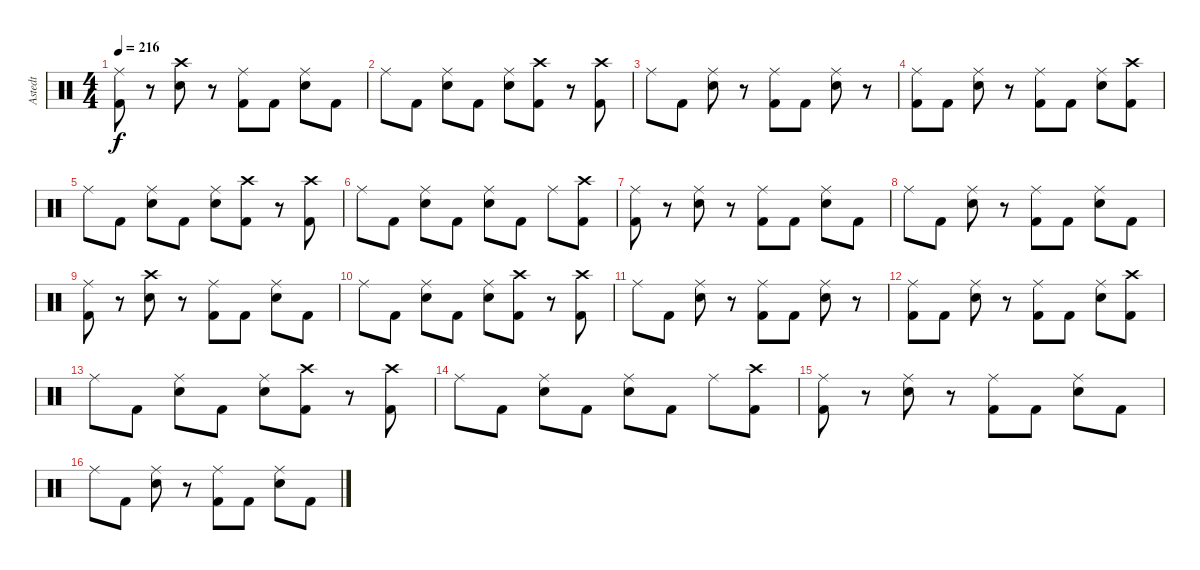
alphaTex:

\track ("Astedt" "Astedt") {instrument percussion}
\staff {score}
\articulation defaults
\ts (4 4)
\tempo 216
\clef neutral
\ks c
("Ride (middle)" "Kick (hit) 2").8{dy f} r.8 ("Crash high (hit)" "Snare (hit) 2").8 r.8 ("Ride (middle)" "Kick (hit) 2").8 "Kick (hit) 2".8 ("Ride (middle)" "Snare (hit) 2").8 "Kick (hit) 2".8 |
"Ride (middle)".8 "Kick (hit) 2".8 ("Ride (middle)" "Snare (hit) 2").8 "Kick (hit) 2".8 ("Ride (middle)" "Snare (hit) 2").8 ("Crash high (hit)" "Kick (hit) 2").8 r.8 ("Crash high (hit)" "Kick (hit) 2").8 |
"Ride (middle)".8 "Kick (hit) 2".8 ("Ride (middle)" "Snare (hit) 2").8 r.8 ("Ride (middle)" "Kick (hit) 2").8 "Kick (hit) 2".8 ("Ride (middle)" "Snare (hit) 2").8 r.8 |
("Ride (middle)" "Kick (hit) 2").8 "Kick (hit) 2".8 ("Ride (middle)" "Snare (hit) 2").8 r.8 ("Ride (middle)" "Kick (hit) 2").8 "Kick (hit) 2".8 ("Ride (middle)" "Snare (hit) 2").8 ("Crash high (hit)" "Kick (hit) 2").8 |
"Ride (middle)".8 "Kick (hit) 2".8 ("Ride (middle)" "Snare (hit) 2").8 "Kick (hit) 2".8 ("Ride (middle)" "Snare (hit) 2").8 ("Crash high (hit)" "Kick (hit) 2").8 r.8 ("Crash high (hit)" "Kick (hit) 2").8 |
"Ride (middle)".8 "Kick (hit) 2".8 ("Ride (middle)" "Snare (hit) 2").8 "Kick (hit) 2".8 ("Ride (middle)" "Snare (hit) 2").8 "Kick (hit) 2".8 "Ride (middle)".8 ("Crash high (hit)" "Kick (hit) 2").8 |
("Ride (middle)" "Kick (hit) 2").8 r.8 ("Ride (middle)" "Snare (hit) 2").8 r.8 ("Ride (middle)" "Kick (hit) 2").8 "Kick (hit) 2".8 ("Ride (middle)" "Snare (hit) 2").8 "Kick (hit) 2".8 |
"Ride (middle)".8 "Kick (hit) 2".8 ("Ride (middle)" "Snare (hit) 2").8 r.8 ("Ride (middle)" "Kick (hit) 2").8 "Kick (hit) 2".8 ("Ride (middle)" "Snare (hit) 2").8 "Kick (hit) 2".8 |
("Ride (middle)" "Kick (hit) 2").8 r.8 ("Crash high (hit)" "Snare (hit) 2").8 r.8 ("Ride (middle)" "Kick (hit) 2").8 "Kick (hit) 2".8 ("Ride (middle)" "Snare (hit) 2").8 "Kick (hit) 2".8 |
"Ride (middle)".8 "Kick (hit) 2".8 ("Ride (middle)" "Snare (hit) 2").8 "Kick (hit) 2".8 ("Ride (middle)" "Snare (hit) 2").8 ("Crash high (hit)" "Kick (hit) 2").8 r.8 ("Crash high (hit)" "Kick (hit) 2").8 |
"Ride (middle)".8 "Kick (hit) 2".8 ("Ride (middle)" "Snare (hit) 2").8 r.8 ("Ride (middle)" "Kick (hit) 2").8 "Kick (hit) 2".8 ("Ride (middle)" "Snare (hit) 2").8 r.8 |
("Ride (middle)" "Kick (hit) 2").8 "Kick (hit) 2".8 ("Ride (middle)" "Snare (hit) 2").8 r.8 ("Ride (middle)" "Kick (hit) 2").8 "Kick (hit) 2".8 ("Ride (middle)" "Snare (hit) 2").8 ("Crash high (hit)" "Kick (hit) 2").8 |
"Ride (middle)".8 "Kick (hit) 2".8 ("Ride (middle)" "Snare (hit) 2").8 "Kick (hit) 2".8 ("Ride (middle)" "Snare (hit) 2").8 ("Crash high (hit)" "Kick (hit) 2").8 r.8 ("Crash high (hit)" "Kick (hit) 2").8 |
"Ride (middle)".8 "Kick (hit) 2".8 ("Ride (middle)" "Snare (hit) 2").8 "Kick (hit) 2".8 ("Ride (middle)" "Snare (hit) 2").8 "Kick (hit) 2".8 "Ride (middle)".8 ("Crash high (hit)" "Kick (hit) 2").8 |
("Ride (middle)" "Kick (hit) 2").8 r.8 ("Ride (middle)" "Snare (hit) 2").8 r.8 ("Ride (middle)" "Kick (hit) 2").8 "Kick (hit) 2".8 ("Ride (middle)" "Snare (hit) 2").8 "Kick (hit) 2".8 |
"Ride (middle)".8 "Kick (hit) 2".8 ("Ride (middle)" "Snare (hit) 2").8 r.8 ("Ride (middle)" "Kick (hit) 2").8 "Kick (hit) 2".8 ("Ride (middle)" "Snare (hit) 2").8 "Kick (hit) 2".8
